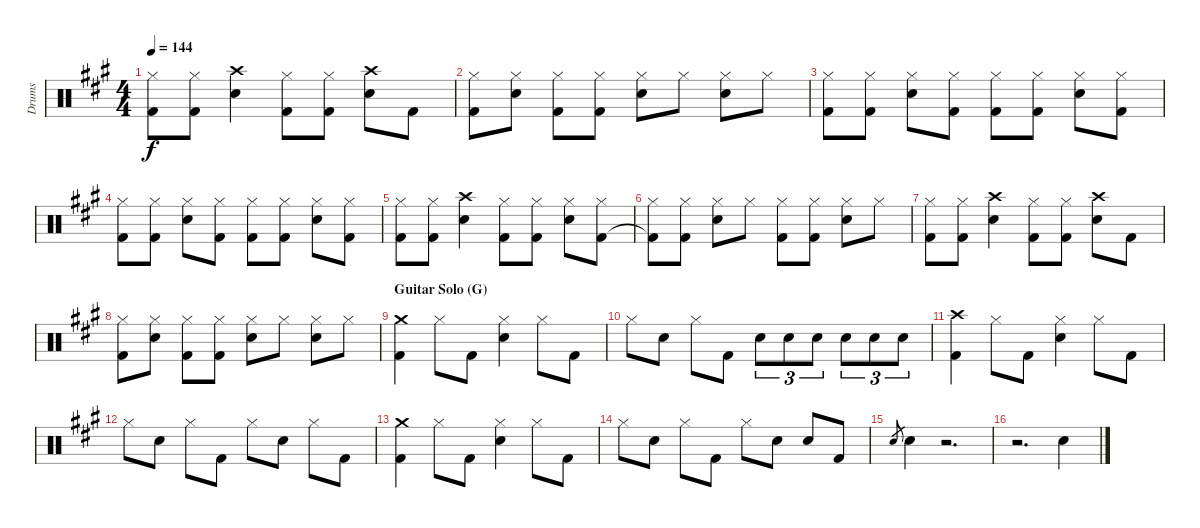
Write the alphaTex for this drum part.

\track ("Drums" "Drums") {instrument percussion}
\staff {score}
\articulation defaults
\ts (4 4)
\tempo 144
\clef neutral
\ks a
("Hi-Hat (closed)" "Kick (hit) 2").8{dy f} ("Hi-Hat (closed)" "Kick (hit) 2").8 ("Crash high (hit)" "Snare (hit) 2").4 ("Hi-Hat (closed)" "Kick (hit) 2").8 ("Hi-Hat (closed)" "Kick (hit) 2").8 ("Crash high (hit)" "Snare (hit) 2").8 "Kick (hit) 2".8 |
("Hi-Hat (closed)" "Kick (hit) 2").8 ("Hi-Hat (closed)" "Snare (hit) 2").8 ("Hi-Hat (closed)" "Kick (hit) 2").8 ("Hi-Hat (closed)" "Kick (hit) 2").8 ("Hi-Hat (closed)" "Snare (hit) 2").8 "Hi-Hat (closed)".8 ("Hi-Hat (closed)" "Snare (hit) 2").8 "Hi-Hat (closed)".8 |
("Hi-Hat (closed)" "Kick (hit) 2").8 ("Hi-Hat (closed)" "Kick (hit) 2").8 ("Hi-Hat (closed)" "Snare (hit) 2").8 ("Hi-Hat (closed)" "Kick (hit) 2").8 ("Hi-Hat (closed)" "Kick (hit) 2").8 ("Hi-Hat (closed)" "Kick (hit) 2").8 ("Hi-Hat (closed)" "Snare (hit) 2").8 ("Hi-Hat (closed)" "Kick (hit) 2").8 |
("Hi-Hat (closed)" "Kick (hit) 2").8 ("Hi-Hat (closed)" "Kick (hit) 2").8 ("Hi-Hat (closed)" "Snare (hit) 2").8 ("Hi-Hat (closed)" "Kick (hit) 2").8 ("Hi-Hat (closed)" "Kick (hit) 2").8 ("Hi-Hat (closed)" "Kick (hit) 2").8 ("Hi-Hat (closed)" "Snare (hit) 2").8 ("Hi-Hat (closed)" "Kick (hit) 2").8 |
("Hi-Hat (closed)" "Kick (hit) 2").8 ("Hi-Hat (closed)" "Kick (hit) 2").8 ("Crash high (hit)" "Snare (hit) 2").4 ("Hi-Hat (closed)" "Kick (hit) 2").8 ("Hi-Hat (closed)" "Kick (hit) 2").8 ("Hi-Hat (closed)" "Snare (hit) 2").8 ("Hi-Hat (closed)" "Kick (hit) 2").8 |
("Hi-Hat (closed)" "Kick (hit) 2"{t}).8 ("Hi-Hat (closed)" "Kick (hit) 2").8 ("Hi-Hat (closed)" "Snare (hit) 2").8 "Hi-Hat (closed)".8 ("Hi-Hat (closed)" "Kick (hit) 2").8 ("Hi-Hat (closed)" "Kick (hit) 2").8 ("Hi-Hat (closed)" "Snare (hit) 2").8 "Hi-Hat (closed)".8 |
("Hi-Hat (closed)" "Kick (hit) 2").8 ("Hi-Hat (closed)" "Kick (hit) 2").8 ("Crash high (hit)" "Snare (hit) 2").4 ("Hi-Hat (closed)" "Kick (hit) 2").8 ("Hi-Hat (closed)" "Kick (hit) 2").8 ("Crash high (hit)" "Snare (hit) 2").8 "Kick (hit) 2".8 |
("Hi-Hat (closed)" "Kick (hit) 2").8 ("Hi-Hat (closed)" "Snare (hit) 2").8 ("Hi-Hat (closed)" "Kick (hit) 2").8 ("Hi-Hat (closed)" "Kick (hit) 2").8 ("Hi-Hat (closed)" "Snare (hit) 2").8 "Hi-Hat (closed)".8 ("Hi-Hat (closed)" "Snare (hit) 2").8 "Hi-Hat (closed)".8 |
\section ("" "Guitar Solo (G)")
("Crash medium (hit)" "Kick (hit) 2").4 "Hi-Hat (closed)".8 "Kick (hit) 2".8 ("Hi-Hat (closed)" "Snare (hit) 2").4 "Hi-Hat (closed)".8 "Kick (hit) 2".8 |
"Hi-Hat (closed)".8 "Snare (hit) 2".8 "Hi-Hat (closed)".8 "Kick (hit) 2".8 "Snare (hit) 2".8{tu (3 2)} "Snare (hit) 2".8{tu (3 2)} "Snare (hit) 2".8{tu (3 2)} "Snare (hit) 2".8{tu (3 2)} "Snare (hit) 2".8{tu (3 2)} "Snare (hit) 2".8{tu (3 2)} |
("Crash high (hit)" "Kick (hit) 2").4 "Hi-Hat (closed)".8 "Kick (hit) 2".8 ("Hi-Hat (closed)" "Snare (hit) 2").4 "Hi-Hat (closed)".8 "Kick (hit) 2".8 |
"Hi-Hat (closed)".8 "Snare (hit) 2".8 "Hi-Hat (closed)".8 "Kick (hit) 2".8 "Hi-Hat (closed)".8 "Snare (hit) 2".8 "Hi-Hat (closed)".8 "Kick (hit) 2".8 |
("Crash medium (hit)" "Kick (hit) 2").4 "Hi-Hat (closed)".8 "Kick (hit) 2".8 ("Hi-Hat (closed)" "Snare (hit) 2").4 "Hi-Hat (closed)".8 "Kick (hit) 2".8 |
"Hi-Hat (closed)".8 "Snare (hit) 2".8 "Hi-Hat (closed)".8 "Kick (hit) 2".8 "Hi-Hat (closed)".8 "Snare (hit) 2".8 "Snare (hit) 2".8 "Kick (hit) 2".8 |
"Snare (hit) 2".8{gr} "Snare (hit) 2".4 r.2{d} |
r.2{d} "Snare (hit) 2".4
